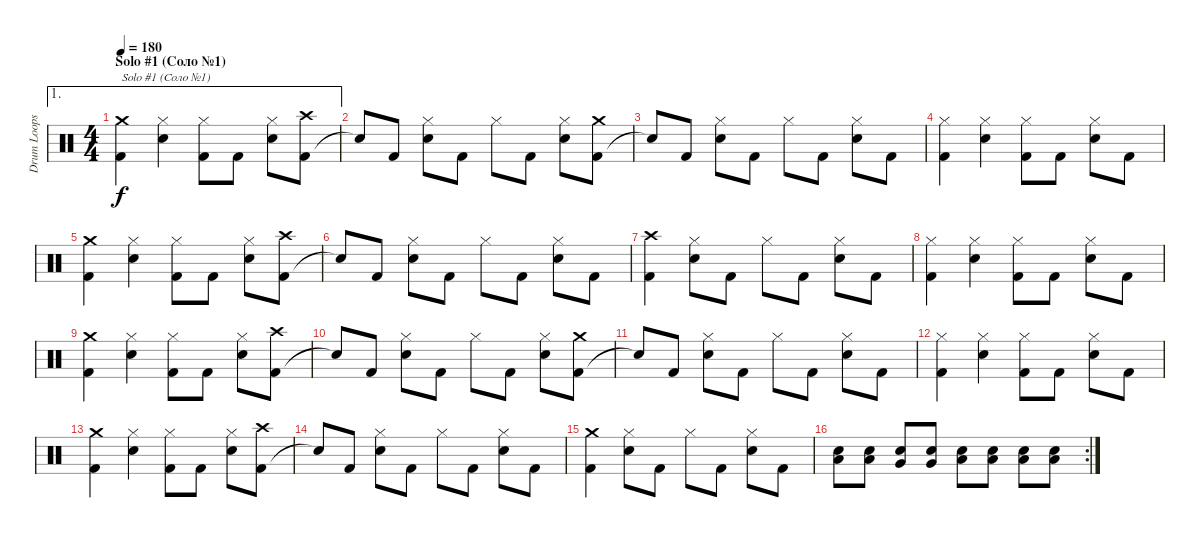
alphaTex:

\track ("Drum Loops (Дурачок)" "Drum Loops") {instrument percussion}
\staff {score}
\articulation defaults
\ae 1
\ts (4 4)
\section ("" "Solo #1 (Соло №1)")
\tempo 180
\clef neutral
\ks c
("Kick (hit) 2" "Crash medium (hit)").4{txt "Solo #1 (Соло №1)" dy f} ("Snare (hit) 2" "Hi-Hat (closed)").4 ("Kick (hit) 2" "Hi-Hat (closed)").8 "Kick (hit) 2".8 ("Snare (hit) 2" "Hi-Hat (closed)").8 ("Kick (hit) 2" "Crash high (hit)").8 |
"Snare (hit)"{t}.8 "Kick (hit) 2".8 ("Snare (hit) 2" "Hi-Hat (closed)").8 "Kick (hit) 2".8 "Hi-Hat (closed)".8 "Kick (hit) 2".8 ("Snare (hit) 2" "Hi-Hat (closed)").8 ("Kick (hit) 2" "Crash medium (hit)").8 |
"Snare (hit)"{t}.8 "Kick (hit) 2".8 ("Snare (hit) 2" "Hi-Hat (closed)").8 "Kick (hit) 2".8 "Hi-Hat (closed)".8 "Kick (hit) 2".8 ("Snare (hit) 2" "Hi-Hat (closed)").8 "Kick (hit) 2".8 |
("Kick (hit) 2" "Hi-Hat (closed)").4 ("Snare (hit) 2" "Hi-Hat (closed)").4 ("Kick (hit) 2" "Hi-Hat (closed)").8 "Kick (hit) 2".8 ("Snare (hit) 2" "Hi-Hat (closed)").8 "Kick (hit) 2".8 |
("Kick (hit) 2" "Crash medium (hit)").4 ("Snare (hit) 2" "Hi-Hat (closed)").4 ("Kick (hit) 2" "Hi-Hat (closed)").8 "Kick (hit) 2".8 ("Snare (hit) 2" "Hi-Hat (closed)").8 ("Kick (hit) 2" "Crash high (hit)").8 |
"Snare (hit)"{t}.8 "Kick (hit) 2".8 ("Snare (hit) 2" "Hi-Hat (closed)").8 "Kick (hit) 2".8 "Hi-Hat (closed)".8 "Kick (hit) 2".8 ("Snare (hit) 2" "Hi-Hat (closed)").8 "Kick (hit) 2".8 |
("Kick (hit) 2" "Crash high (hit)").4 ("Snare (hit) 2" "Hi-Hat (closed)").8 "Kick (hit) 2".8 "Hi-Hat (closed)".8 "Kick (hit) 2".8 ("Snare (hit) 2" "Hi-Hat (closed)").8 "Kick (hit) 2".8 |
("Kick (hit) 2" "Hi-Hat (closed)").4 ("Snare (hit) 2" "Hi-Hat (closed)").4 ("Kick (hit) 2" "Hi-Hat (closed)").8 "Kick (hit) 2".8 ("Snare (hit) 2" "Hi-Hat (closed)").8 "Kick (hit) 2".8 |
("Kick (hit) 2" "Crash medium (hit)").4 ("Snare (hit) 2" "Hi-Hat (closed)").4 ("Kick (hit) 2" "Hi-Hat (closed)").8 "Kick (hit) 2".8 ("Snare (hit) 2" "Hi-Hat (closed)").8 ("Kick (hit) 2" "Crash high (hit)").8 |
"Snare (hit)"{t}.8 "Kick (hit) 2".8 ("Snare (hit) 2" "Hi-Hat (closed)").8 "Kick (hit) 2".8 "Hi-Hat (closed)".8 "Kick (hit) 2".8 ("Snare (hit) 2" "Hi-Hat (closed)").8 ("Kick (hit) 2" "Crash medium (hit)").8 |
"Snare (hit)"{t}.8 "Kick (hit) 2".8 ("Snare (hit) 2" "Hi-Hat (closed)").8 "Kick (hit) 2".8 "Hi-Hat (closed)".8 "Kick (hit) 2".8 ("Snare (hit) 2" "Hi-Hat (closed)").8 "Kick (hit) 2".8 |
("Kick (hit) 2" "Hi-Hat (closed)").4 ("Snare (hit) 2" "Hi-Hat (closed)").4 ("Kick (hit) 2" "Hi-Hat (closed)").8 "Kick (hit) 2".8 ("Snare (hit) 2" "Hi-Hat (closed)").8 "Kick (hit) 2".8 |
("Kick (hit) 2" "Crash medium (hit)").4 ("Snare (hit) 2" "Hi-Hat (closed)").4 ("Kick (hit) 2" "Hi-Hat (closed)").8 "Kick (hit) 2".8 ("Snare (hit) 2" "Hi-Hat (closed)").8 ("Kick (hit) 2" "Crash high (hit)").8 |
"Snare (hit)"{t}.8 "Kick (hit) 2".8 ("Snare (hit) 2" "Hi-Hat (closed)").8 "Kick (hit) 2".8 "Hi-Hat (closed)".8 "Kick (hit) 2".8 ("Snare (hit) 2" "Hi-Hat (closed)").8 "Kick (hit) 2".8 |
("Kick (hit) 2" "Crash medium (hit)").4 ("Snare (hit) 2" "Hi-Hat (closed)").8 "Kick (hit) 2".8 "Hi-Hat (closed)".8 "Kick (hit) 2".8 ("Snare (hit) 2" "Hi-Hat (closed)").8 "Kick (hit) 2".8 |
\rc 2
("Snare (hit) 2" "Low Tom (hit)").8 ("Snare (hit) 2" "Low Tom (hit)").8 ("Snare (hit) 2" "Very Low Tom (hit)").8 ("Snare (hit) 2" "Very Low Tom (hit)").8 ("Snare (hit) 2" "Low Floor Tom (hit)").8 ("Snare (hit) 2" "Low Floor Tom (hit)").8 ("Snare (hit) 2" "Low Floor Tom (hit)").8 ("Snare (hit) 2" "Low Floor Tom (hit)").8
